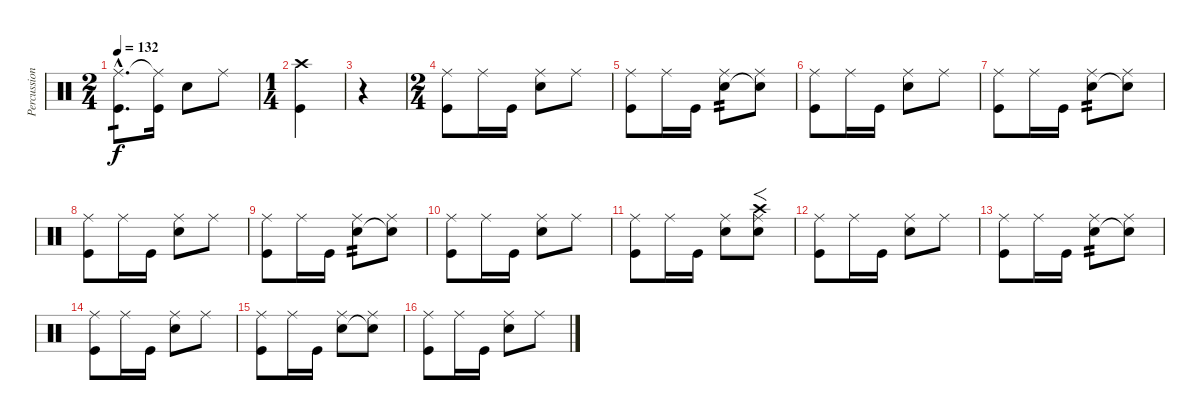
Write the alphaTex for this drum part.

\track ("Percussion" "Percussion") {instrument percussion}
\staff {score}
\articulation defaults
\ts (2 4)
\tempo 132
\clef neutral
\ks c
("Ride (middle)"{hac} "Kick (hit)"{hac}).8{d tp 1 dy f} ("Ride (middle)"{t} "Kick (hit)").16 "Electric Snare (hit)".8 "Ride (middle)".8 |
\ts (1 4)
("Kick (hit)" "Crash high (hit)").4 |
r.4 |
\ts (2 4)
("Ride (middle)" "Kick (hit)").8 "Ride (middle)".16 "Kick (hit)".16 ("Ride (middle)" "Electric Snare (hit)").8 "Ride (middle)".8 |
("Ride (middle)" "Kick (hit)").8 "Ride (middle)".16 "Kick (hit)".16 ("Ride (middle)" "Electric Snare (hit)").8{tp 2} ("Ride (middle)" "Snare (hit)"{t}).8 |
("Ride (middle)" "Kick (hit)").8 "Ride (middle)".16 "Kick (hit)".16 ("Ride (middle)" "Electric Snare (hit)").8 "Ride (middle)".8 |
("Ride (middle)" "Kick (hit)").8 "Ride (middle)".16 "Kick (hit)".16 ("Ride (middle)" "Electric Snare (hit)").8{tp 2} ("Ride (middle)" "Snare (hit)"{t}).8 |
("Ride (middle)" "Kick (hit)").8 "Ride (middle)".16 "Kick (hit)".16 ("Ride (middle)" "Electric Snare (hit)").8 "Ride (middle)".8 |
("Ride (middle)" "Kick (hit)").8 "Ride (middle)".16 "Kick (hit)".16 ("Ride (middle)" "Electric Snare (hit)").8{tp 2} ("Ride (middle)" "Snare (hit)"{t}).8 |
("Ride (middle)" "Kick (hit)").8 "Ride (middle)".16 "Kick (hit)".16 ("Ride (middle)" "Electric Snare (hit)").8 "Ride (middle)".8 |
("Ride (middle)" "Kick (hit)").8 "Ride (middle)".16 "Kick (hit)".16 ("Ride (middle)" "Electric Snare (hit)").8 ("Crash high (hit)" "Ride (middle)" "Snare (hit)").8{f} |
("Ride (middle)" "Kick (hit)").8 "Ride (middle)".16 "Kick (hit)".16 ("Ride (middle)" "Electric Snare (hit)").8 "Ride (middle)".8 |
("Ride (middle)" "Kick (hit)").8 "Ride (middle)".16 "Kick (hit)".16 ("Ride (middle)" "Electric Snare (hit)").8{tp 2} ("Ride (middle)" "Snare (hit)"{t}).8 |
("Ride (middle)" "Kick (hit)").8 "Ride (middle)".16 "Kick (hit)".16 ("Ride (middle)" "Electric Snare (hit)").8 "Ride (middle)".8 |
("Ride (middle)" "Kick (hit)").8 "Ride (middle)".16 "Kick (hit)".16 ("Ride (middle)" "Electric Snare (hit)").8 ("Ride (middle)" "Snare (hit)"{t}).8 |
("Ride (middle)" "Kick (hit)").8 "Ride (middle)".16 "Kick (hit)".16 ("Ride (middle)" "Electric Snare (hit)").8 "Ride (middle)".8
